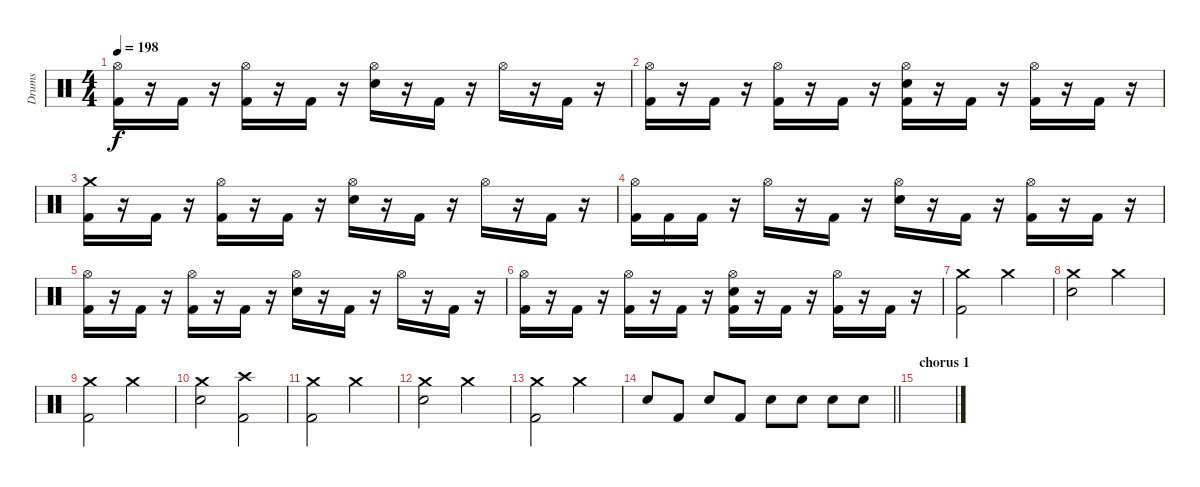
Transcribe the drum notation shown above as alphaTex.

\track ("Drums" "Drums") {instrument percussion}
\staff {score}
\articulation defaults
\ts (4 4)
\tempo 198
\clef neutral
\ks c
("Hi-Hat (open)" "Kick (hit) 2").16{dy f} r.16 "Kick (hit) 2".16 r.16 ("Hi-Hat (open)" "Kick (hit) 2").16 r.16 "Kick (hit) 2".16 r.16 ("Hi-Hat (open)" "Snare (hit) 2").16 r.16 "Kick (hit) 2".16 r.16 "Hi-Hat (open)".16 r.16 "Kick (hit) 2".16 r.16 |
("Hi-Hat (open)" "Kick (hit) 2").16 r.16 "Kick (hit) 2".16 r.16 ("Hi-Hat (open)" "Kick (hit) 2").16 r.16 "Kick (hit) 2".16 r.16 ("Hi-Hat (open)" "Snare (hit) 2" "Kick (hit) 2").16 r.16 "Kick (hit) 2".16 r.16 ("Hi-Hat (open)" "Kick (hit) 2").16 r.16 "Kick (hit) 2".16 r.16 |
("Crash medium (hit)" "Kick (hit) 2").16 r.16 "Kick (hit) 2".16 r.16 ("Hi-Hat (open)" "Kick (hit) 2").16 r.16 "Kick (hit) 2".16 r.16 ("Hi-Hat (open)" "Snare (hit) 2").16 r.16 "Kick (hit) 2".16 r.16 "Hi-Hat (open)".16 r.16 "Kick (hit) 2".16 r.16 |
("Hi-Hat (open)" "Kick (hit) 2").16 "Kick (hit) 2".16 "Kick (hit) 2".16 r.16 "Hi-Hat (open)".16 r.16 "Kick (hit) 2".16 r.16 ("Hi-Hat (open)" "Snare (hit) 2").16 r.16 "Kick (hit) 2".16 r.16 ("Hi-Hat (open)" "Kick (hit) 2").16 r.16 "Kick (hit) 2".16 r.16 |
("Hi-Hat (open)" "Kick (hit) 2").16 r.16 "Kick (hit) 2".16 r.16 ("Hi-Hat (open)" "Kick (hit) 2").16 r.16 "Kick (hit) 2".16 r.16 ("Hi-Hat (open)" "Snare (hit) 2").16 r.16 "Kick (hit) 2".16 r.16 "Hi-Hat (open)".16 r.16 "Kick (hit) 2".16 r.16 |
("Hi-Hat (open)" "Kick (hit) 2").16 r.16 "Kick (hit) 2".16 r.16 ("Hi-Hat (open)" "Kick (hit) 2").16 r.16 "Kick (hit) 2".16 r.16 ("Hi-Hat (open)" "Snare (hit) 2" "Kick (hit) 2").16 r.16 "Kick (hit) 2".16 r.16 ("Hi-Hat (open)" "Kick (hit) 2").16 r.16 "Kick (hit) 2".16 r.16 |
("Crash medium (hit)" "Kick (hit) 2").2 "Crash medium (hit)".2 |
("Crash medium (hit)" "Snare (hit) 2").2 "Crash medium (hit)".2 |
("Crash medium (hit)" "Kick (hit) 2").2 "Crash medium (hit)".2 |
("Crash medium (hit)" "Snare (hit) 2").2 ("Crash high (hit)" "Kick (hit) 2").2 |
("Crash medium (hit)" "Kick (hit) 2").2 "Crash medium (hit)".2 |
("Crash medium (hit)" "Snare (hit) 2").2 "Crash medium (hit)".2 |
("Crash medium (hit)" "Kick (hit) 2").2 "Crash medium (hit)".2 |
\barLineRight lightlight "Snare (hit) 2".8 "Kick (hit) 2".8 "Snare (hit) 2".8 "Kick (hit) 2".8 "Snare (hit) 2".8 "Snare (hit) 2".8 "Snare (hit) 2".8 "Snare (hit) 2".8
|
\section ("" "chorus 1")
